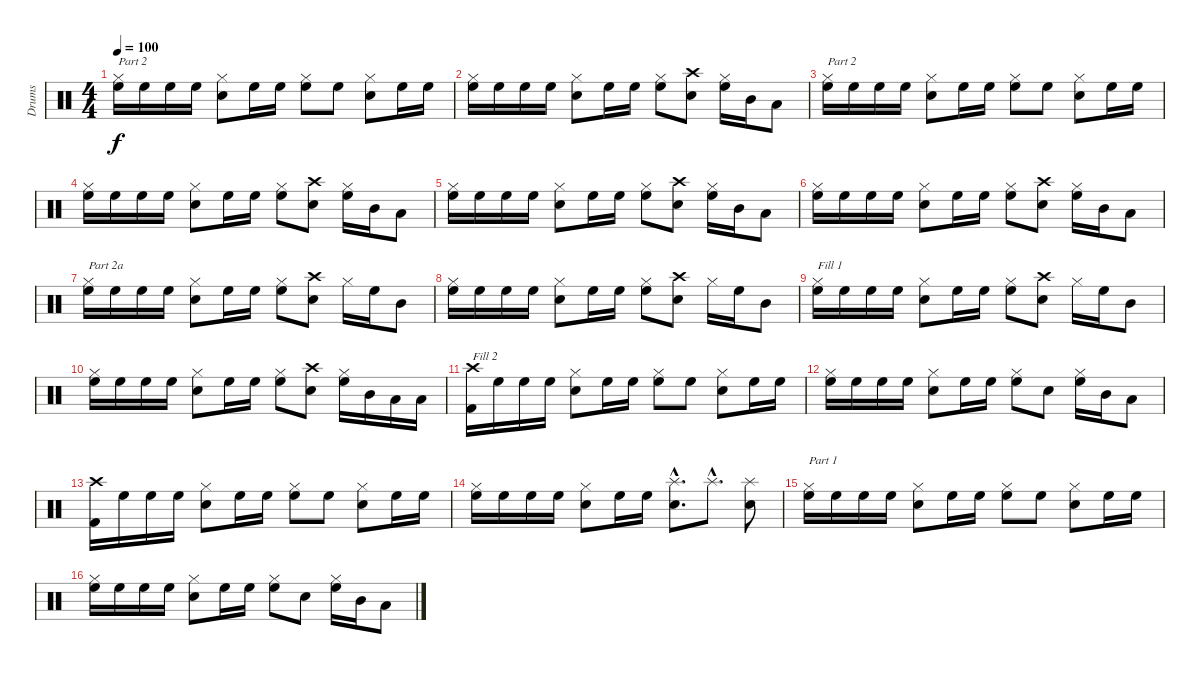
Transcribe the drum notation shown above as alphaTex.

\track ("Drums" "Drums") {instrument percussion}
\staff {score}
\articulation defaults
\ts (4 4)
\tempo 100
\clef neutral
\ks c
("High Floor Tom (hit)" "Hi-Hat (closed)").16{txt "Part 2" dy f} "High Floor Tom (hit)".16 "High Floor Tom (hit)".16 "High Floor Tom (hit)".16 ("Snare (hit) 2" "Hi-Hat (closed)").8 "High Floor Tom (hit)".16 "High Floor Tom (hit)".16 ("High Floor Tom (hit)" "Hi-Hat (closed)").8 "High Floor Tom (hit)".8 ("Snare (hit) 2" "Hi-Hat (closed)").8 "High Floor Tom (hit)".16 "High Floor Tom (hit)".16 |
("High Floor Tom (hit)" "Hi-Hat (closed)").16 "High Floor Tom (hit)".16 "High Floor Tom (hit)".16 "High Floor Tom (hit)".16 ("Snare (hit) 2" "Hi-Hat (closed)").8 "High Floor Tom (hit)".16 "High Floor Tom (hit)".16 ("High Floor Tom (hit)" "Hi-Hat (closed)").8 ("Crash high (hit)" "Snare (hit) 2").8 ("High Floor Tom (hit)" "Hi-Hat (closed)").16 "Mid Tom (hit)".16 "Low Floor Tom (hit)".8 |
("High Floor Tom (hit)" "Hi-Hat (closed)").16{txt "Part 2"} "High Floor Tom (hit)".16 "High Floor Tom (hit)".16 "High Floor Tom (hit)".16 ("Snare (hit) 2" "Hi-Hat (closed)").8 "High Floor Tom (hit)".16 "High Floor Tom (hit)".16 ("High Floor Tom (hit)" "Hi-Hat (closed)").8 "High Floor Tom (hit)".8 ("Snare (hit) 2" "Hi-Hat (closed)").8 "High Floor Tom (hit)".16 "High Floor Tom (hit)".16 |
("High Floor Tom (hit)" "Hi-Hat (closed)").16 "High Floor Tom (hit)".16 "High Floor Tom (hit)".16 "High Floor Tom (hit)".16 ("Snare (hit) 2" "Hi-Hat (closed)").8 "High Floor Tom (hit)".16 "High Floor Tom (hit)".16 ("High Floor Tom (hit)" "Hi-Hat (closed)").8 ("Crash high (hit)" "Snare (hit) 2").8 ("High Floor Tom (hit)" "Hi-Hat (closed)").16 "Mid Tom (hit)".16 "Low Floor Tom (hit)".8 |
("High Floor Tom (hit)" "Hi-Hat (closed)").16 "High Floor Tom (hit)".16 "High Floor Tom (hit)".16 "High Floor Tom (hit)".16 ("Snare (hit) 2" "Hi-Hat (closed)").8 "High Floor Tom (hit)".16 "High Floor Tom (hit)".16 ("High Floor Tom (hit)" "Hi-Hat (closed)").8 ("Crash high (hit)" "Snare (hit) 2").8 ("High Floor Tom (hit)" "Hi-Hat (closed)").16 "Mid Tom (hit)".16 "Low Floor Tom (hit)".8 |
("High Floor Tom (hit)" "Hi-Hat (closed)").16 "High Floor Tom (hit)".16 "High Floor Tom (hit)".16 "High Floor Tom (hit)".16 ("Snare (hit) 2" "Hi-Hat (closed)").8 "High Floor Tom (hit)".16 "High Floor Tom (hit)".16 ("High Floor Tom (hit)" "Hi-Hat (closed)").8 ("Crash high (hit)" "Snare (hit) 2").8 ("High Floor Tom (hit)" "Hi-Hat (closed)").16 "Mid Tom (hit)".16 "Low Floor Tom (hit)".8 |
("High Floor Tom (hit)" "Hi-Hat (closed)").16{txt "Part 2a"} "High Floor Tom (hit)".16 "High Floor Tom (hit)".16 "High Floor Tom (hit)".16 ("Snare (hit) 2" "Hi-Hat (closed)").8 "High Floor Tom (hit)".16 "High Floor Tom (hit)".16 ("High Floor Tom (hit)" "Hi-Hat (closed)").8 ("Crash high (hit)" "Snare (hit) 2").8 "Hi-Hat (closed)".16 "High Floor Tom (hit)".16 "Mid Tom (hit)".8 |
("High Floor Tom (hit)" "Hi-Hat (closed)").16 "High Floor Tom (hit)".16 "High Floor Tom (hit)".16 "High Floor Tom (hit)".16 ("Snare (hit) 2" "Hi-Hat (closed)").8 "High Floor Tom (hit)".16 "High Floor Tom (hit)".16 ("High Floor Tom (hit)" "Hi-Hat (closed)").8 ("Crash high (hit)" "Snare (hit) 2").8 "Hi-Hat (closed)".16 "High Floor Tom (hit)".16 "Mid Tom (hit)".8 |
("High Floor Tom (hit)" "Hi-Hat (closed)").16{txt "Fill 1"} "High Floor Tom (hit)".16 "High Floor Tom (hit)".16 "High Floor Tom (hit)".16 ("Snare (hit) 2" "Hi-Hat (closed)").8 "High Floor Tom (hit)".16 "High Floor Tom (hit)".16 ("High Floor Tom (hit)" "Hi-Hat (closed)").8 ("Crash high (hit)" "Snare (hit) 2").8 "Hi-Hat (closed)".16 "High Floor Tom (hit)".16 "Mid Tom (hit)".8 |
("High Floor Tom (hit)" "Hi-Hat (closed)").16 "High Floor Tom (hit)".16 "High Floor Tom (hit)".16 "High Floor Tom (hit)".16 ("Snare (hit) 2" "Hi-Hat (closed)").8 "High Floor Tom (hit)".16 "High Floor Tom (hit)".16 ("High Floor Tom (hit)" "Hi-Hat (closed)").8 ("Crash high (hit)" "Snare (hit) 2").8 ("High Floor Tom (hit)" "Hi-Hat (closed)").16 "Mid Tom (hit)".16 "Low Floor Tom (hit)".16 "Low Floor Tom (hit)".16 |
("Crash high (hit)" "Kick (hit) 2").16{txt "Fill 2"} "High Floor Tom (hit)".16 "High Floor Tom (hit)".16 "High Floor Tom (hit)".16 ("Snare (hit) 2" "Hi-Hat (closed)").8 "High Floor Tom (hit)".16 "High Floor Tom (hit)".16 ("High Floor Tom (hit)" "Hi-Hat (closed)").8 "High Floor Tom (hit)".8 ("Snare (hit) 2" "Hi-Hat (closed)").8 "High Floor Tom (hit)".16 "High Floor Tom (hit)".16 |
("High Floor Tom (hit)" "Hi-Hat (closed)").16 "High Floor Tom (hit)".16 "High Floor Tom (hit)".16 "High Floor Tom (hit)".16 ("Snare (hit) 2" "Hi-Hat (closed)").8 "High Floor Tom (hit)".16 "High Floor Tom (hit)".16 ("High Floor Tom (hit)" "Hi-Hat (closed)").8 "Snare (hit) 2".8 ("High Floor Tom (hit)" "Hi-Hat (closed)").16 "Mid Tom (hit)".16 "Low Floor Tom (hit)".8 |
("Crash high (hit)" "Kick (hit) 2").16 "High Floor Tom (hit)".16 "High Floor Tom (hit)".16 "High Floor Tom (hit)".16 ("Snare (hit) 2" "Hi-Hat (closed)").8 "High Floor Tom (hit)".16 "High Floor Tom (hit)".16 ("High Floor Tom (hit)" "Hi-Hat (closed)").8 "High Floor Tom (hit)".8 ("Snare (hit) 2" "Hi-Hat (closed)").8 "High Floor Tom (hit)".16 "High Floor Tom (hit)".16 |
("High Floor Tom (hit)" "Hi-Hat (closed)").16 "High Floor Tom (hit)".16 "High Floor Tom (hit)".16 "High Floor Tom (hit)".16 ("Snare (hit) 2" "Hi-Hat (closed)").8 "High Floor Tom (hit)".16 "High Floor Tom (hit)".16 ("Splash (hit)"{hac} "Snare (hit) 2"{hac}).8{d} "Splash (hit)"{hac}.8{d} ("Splash (hit)" "Snare (hit) 2").8 |
("High Floor Tom (hit)" "Hi-Hat (closed)").16{txt "Part 1"} "High Floor Tom (hit)".16 "High Floor Tom (hit)".16 "High Floor Tom (hit)".16 ("Snare (hit) 2" "Hi-Hat (closed)").8 "High Floor Tom (hit)".16 "High Floor Tom (hit)".16 ("High Floor Tom (hit)" "Hi-Hat (closed)").8 "High Floor Tom (hit)".8 ("Snare (hit) 2" "Hi-Hat (closed)").8 "High Floor Tom (hit)".16 "High Floor Tom (hit)".16 |
("High Floor Tom (hit)" "Hi-Hat (closed)").16 "High Floor Tom (hit)".16 "High Floor Tom (hit)".16 "High Floor Tom (hit)".16 ("Snare (hit) 2" "Hi-Hat (closed)").8 "High Floor Tom (hit)".16 "High Floor Tom (hit)".16 ("High Floor Tom (hit)" "Hi-Hat (closed)").8 "Snare (hit) 2".8 ("High Floor Tom (hit)" "Hi-Hat (closed)").16 "Mid Tom (hit)".16 "Low Floor Tom (hit)".8
